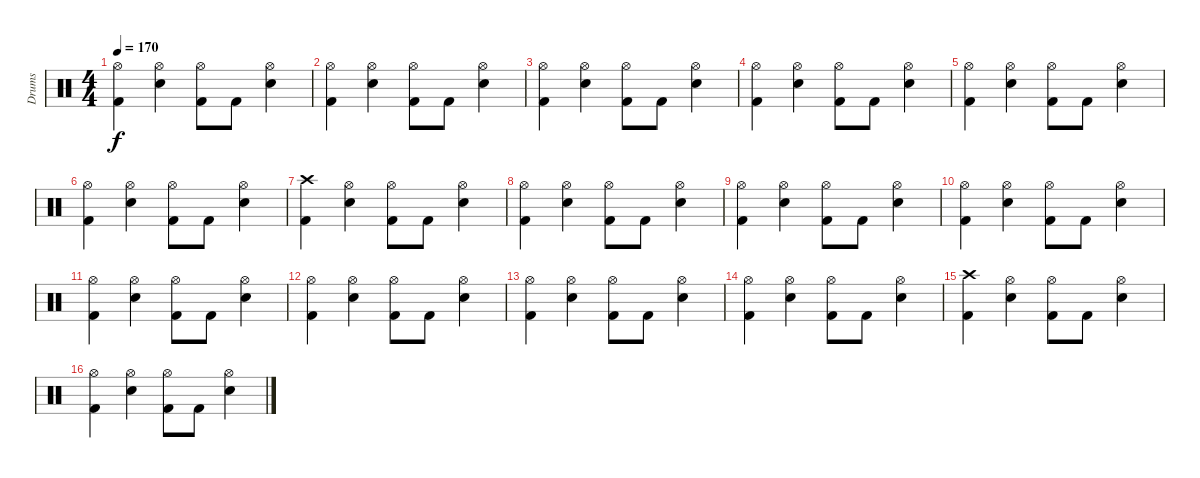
\track ("Drums" "Drums") {instrument percussion}
\staff {score}
\articulation defaults
\ts (4 4)
\tempo 170
\clef neutral
\ks c
("Hi-Hat (open)" "Kick (hit) 2").4{dy f} ("Hi-Hat (open)" "Snare (hit) 2").4 ("Hi-Hat (open)" "Kick (hit) 2").8 "Kick (hit) 2".8 ("Hi-Hat (open)" "Snare (hit) 2").4 |
("Hi-Hat (open)" "Kick (hit) 2").4 ("Hi-Hat (open)" "Snare (hit) 2").4 ("Hi-Hat (open)" "Kick (hit) 2").8 "Kick (hit) 2".8 ("Hi-Hat (open)" "Snare (hit) 2").4 |
("Hi-Hat (open)" "Kick (hit) 2").4 ("Hi-Hat (open)" "Snare (hit) 2").4 ("Hi-Hat (open)" "Kick (hit) 2").8 "Kick (hit) 2".8 ("Hi-Hat (open)" "Snare (hit) 2").4 |
("Hi-Hat (open)" "Kick (hit) 2").4 ("Hi-Hat (open)" "Snare (hit) 2").4 ("Hi-Hat (open)" "Kick (hit) 2").8 "Kick (hit) 2".8 ("Hi-Hat (open)" "Snare (hit) 2").4 |
("Hi-Hat (open)" "Kick (hit) 2").4 ("Hi-Hat (open)" "Snare (hit) 2").4 ("Hi-Hat (open)" "Kick (hit) 2").8 "Kick (hit) 2".8 ("Hi-Hat (open)" "Snare (hit) 2").4 |
("Hi-Hat (open)" "Kick (hit) 2").4 ("Hi-Hat (open)" "Snare (hit) 2").4 ("Hi-Hat (open)" "Kick (hit) 2").8 "Kick (hit) 2".8 ("Hi-Hat (open)" "Snare (hit) 2").4 |
("Crash high (hit)" "Kick (hit) 2").4 ("Hi-Hat (open)" "Snare (hit) 2").4 ("Hi-Hat (open)" "Kick (hit) 2").8 "Kick (hit) 2".8 ("Hi-Hat (open)" "Snare (hit) 2").4 |
("Hi-Hat (open)" "Kick (hit) 2").4 ("Hi-Hat (open)" "Snare (hit) 2").4 ("Hi-Hat (open)" "Kick (hit) 2").8 "Kick (hit) 2".8 ("Hi-Hat (open)" "Snare (hit) 2").4 |
("Hi-Hat (open)" "Kick (hit) 2").4 ("Hi-Hat (open)" "Snare (hit) 2").4 ("Hi-Hat (open)" "Kick (hit) 2").8 "Kick (hit) 2".8 ("Hi-Hat (open)" "Snare (hit) 2").4 |
("Hi-Hat (open)" "Kick (hit) 2").4 ("Hi-Hat (open)" "Snare (hit) 2").4 ("Hi-Hat (open)" "Kick (hit) 2").8 "Kick (hit) 2".8 ("Hi-Hat (open)" "Snare (hit) 2").4 |
("Hi-Hat (open)" "Kick (hit) 2").4 ("Hi-Hat (open)" "Snare (hit) 2").4 ("Hi-Hat (open)" "Kick (hit) 2").8 "Kick (hit) 2".8 ("Hi-Hat (open)" "Snare (hit) 2").4 |
("Hi-Hat (open)" "Kick (hit) 2").4 ("Hi-Hat (open)" "Snare (hit) 2").4 ("Hi-Hat (open)" "Kick (hit) 2").8 "Kick (hit) 2".8 ("Hi-Hat (open)" "Snare (hit) 2").4 |
("Hi-Hat (open)" "Kick (hit) 2").4 ("Hi-Hat (open)" "Snare (hit) 2").4 ("Hi-Hat (open)" "Kick (hit) 2").8 "Kick (hit) 2".8 ("Hi-Hat (open)" "Snare (hit) 2").4 |
("Hi-Hat (open)" "Kick (hit) 2").4 ("Hi-Hat (open)" "Snare (hit) 2").4 ("Hi-Hat (open)" "Kick (hit) 2").8 "Kick (hit) 2".8 ("Hi-Hat (open)" "Snare (hit) 2").4 |
("Crash high (hit)" "Kick (hit) 2").4 ("Hi-Hat (open)" "Snare (hit) 2").4 ("Hi-Hat (open)" "Kick (hit) 2").8 "Kick (hit) 2".8 ("Hi-Hat (open)" "Snare (hit) 2").4 |
("Hi-Hat (open)" "Kick (hit) 2").4 ("Hi-Hat (open)" "Snare (hit) 2").4 ("Hi-Hat (open)" "Kick (hit) 2").8 "Kick (hit) 2".8 ("Hi-Hat (open)" "Snare (hit) 2").4
